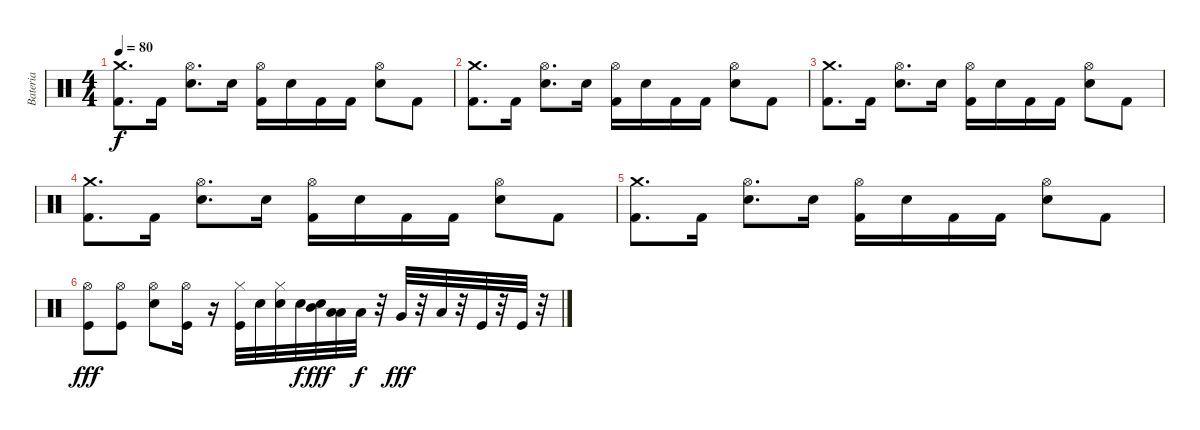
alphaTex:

\track ("Bateria" "Bateria") {instrument percussion}
\staff {score}
\articulation defaults
\ts (4 4)
\tempo 80
\clef neutral
\ks c
("Crash medium (hit)" "Kick (hit) 2").8{d dy f} "Kick (hit) 2".16 ("Hi-Hat (open)" "Electric Snare (hit)").8{d} "Electric Snare (hit)".16 ("Hi-Hat (open)" "Kick (hit) 2").16 "Electric Snare (hit)".16 "Kick (hit) 2".16 "Kick (hit) 2".16 ("Hi-Hat (open)" "Electric Snare (hit)").8 "Kick (hit) 2".8 |
("Crash medium (hit)" "Kick (hit) 2").8{d} "Kick (hit) 2".16 ("Hi-Hat (open)" "Electric Snare (hit)").8{d} "Electric Snare (hit)".16 ("Hi-Hat (open)" "Kick (hit) 2").16 "Electric Snare (hit)".16 "Kick (hit) 2".16 "Kick (hit) 2".16 ("Hi-Hat (open)" "Electric Snare (hit)").8 "Kick (hit) 2".8 |
("Crash medium (hit)" "Kick (hit) 2").8{d} "Kick (hit) 2".16 ("Hi-Hat (open)" "Electric Snare (hit)").8{d} "Electric Snare (hit)".16 ("Hi-Hat (open)" "Kick (hit) 2").16 "Electric Snare (hit)".16 "Kick (hit) 2".16 "Kick (hit) 2".16 ("Hi-Hat (open)" "Electric Snare (hit)").8 "Kick (hit) 2".8 |
("Crash medium (hit)" "Kick (hit) 2").8{d} "Kick (hit) 2".16 ("Hi-Hat (open)" "Electric Snare (hit)").8{d} "Electric Snare (hit)".16 ("Hi-Hat (open)" "Kick (hit) 2").16 "Electric Snare (hit)".16 "Kick (hit) 2".16 "Kick (hit) 2".16 ("Hi-Hat (open)" "Electric Snare (hit)").8 "Kick (hit) 2".8 |
("Crash medium (hit)" "Kick (hit) 2").8{d} "Kick (hit) 2".16 ("Hi-Hat (open)" "Electric Snare (hit)").8{d} "Electric Snare (hit)".16 ("Hi-Hat (open)" "Kick (hit) 2").16 "Electric Snare (hit)".16 "Kick (hit) 2".16 "Kick (hit) 2".16 ("Hi-Hat (open)" "Electric Snare (hit)").8 "Kick (hit) 2".8 |
("Kick (hit)" "Hi-Hat (open)").8{dy fff} ("Kick (hit)" "Hi-Hat (open)").8 ("Snare (hit) 2" "Hi-Hat (open)").8 ("Kick (hit)" "Hi-Hat (open)").16 r.16 ("Kick (hit)" "Hi-Hat (closed)").32 "Snare (hit) 2".32 ("Snare (hit) 2" "Hi-Hat (closed)").32 "Snare (hit) 2".32{dy f} ("Snare (hit) 2" "Mid Tom (hit)").32{dy fff} ("Low Tom (hit)" "Low Tom (hit)").32 "Low Tom (hit)".32{dy f} r.32 "Very Low Tom (hit)".32{dy fff} r.32 "Low Floor Tom (hit)".32 r.32 "Kick (hit)".32 r.32 "Kick (hit)".32 r.32
